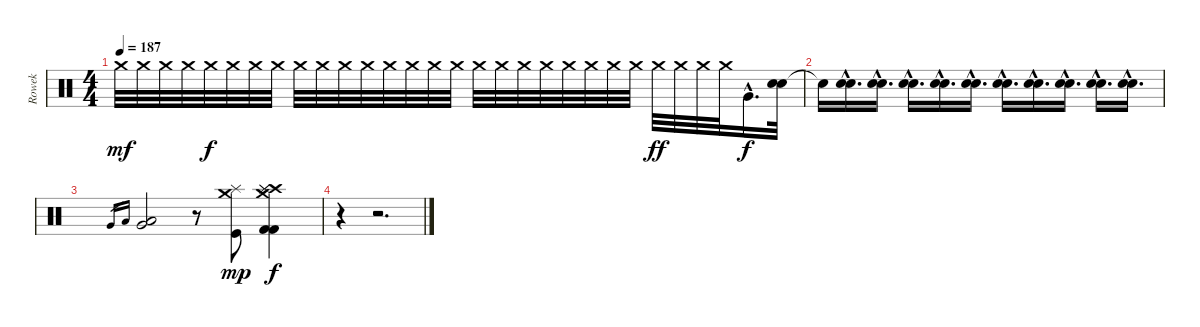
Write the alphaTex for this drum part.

\track ("Rowek" "Rowek") {instrument percussion}
\staff {score}
\articulation defaults
\ts (4 4)
\tempo 187
\clef neutral
\ks c "Crash medium (hit)".32{dy mf} "Crash medium (hit)".32 "Crash medium (hit)".32 "Crash medium (hit)".32 "Crash medium (hit)".32{dy f} "Crash medium (hit)".32 "Crash medium (hit)".32 "Crash medium (hit)".32 "Crash medium (hit)".32 "Crash medium (hit)".32 "Crash medium (hit)".32 "Crash medium (hit)".32 "Crash medium (hit)".32 "Crash medium (hit)".32 "Crash medium (hit)".32 "Crash medium (hit)".32 "Crash medium (hit)".32 "Crash medium (hit)".32 "Crash medium (hit)".32 "Crash medium (hit)".32 "Crash medium (hit)".32 "Crash medium (hit)".32 "Crash medium (hit)".32 "Crash medium (hit)".32 "Crash medium (hit)".32{dy ff} "Crash medium (hit)".32 "Crash medium (hit)".32 "Crash medium (hit)".32 "Very Low Tom (hit)"{hac}.16{d dy f}
("Electric Snare (hit)" "Electric Snare (hit)").32 |
"Snare (hit)"{t}.16 ("Electric Snare (hit)"{hac} "Electric Snare (hit)"{hac}).16{d} ("Electric Snare (hit)"{hac} "Electric Snare (hit)"{hac}).16{d} ("Electric Snare (hit)"{hac} "Electric Snare (hit)"{hac}).16{d} ("Electric Snare (hit)"{hac} "Electric Snare (hit)"{hac}).16{d} ("Electric Snare (hit)"{hac} "Electric Snare (hit)"{hac}).16{d} ("Electric Snare (hit)"{hac} "Electric Snare (hit)"{hac}).16{d} ("Electric Snare (hit)"{hac} "Electric Snare (hit)"{hac}).16{d} ("Electric Snare (hit)"{hac} "Electric Snare (hit)"{hac}).16{d} ("Electric Snare (hit)"{hac} "Electric Snare (hit)"{hac}).16{d} ("Electric Snare (hit)"{hac} "Electric Snare (hit)"{hac}).16{d} |
"Very Low Tom (hit)".16{gr} "Low Tom (hit)".16{gr} ("Very Low Tom (hit)" "Low Tom (hit)").2 r.8 ("Crash medium (hit)" "Splash (hit)" "Kick (hit)").8{dy mp} ("Crash high (hit)" "Splash (hit)" "Kick (hit) 2" "Crash medium (hit)" "Kick (hit) 2" "Splash (hit)").4{dy f} |
r.4 r.2{d}
